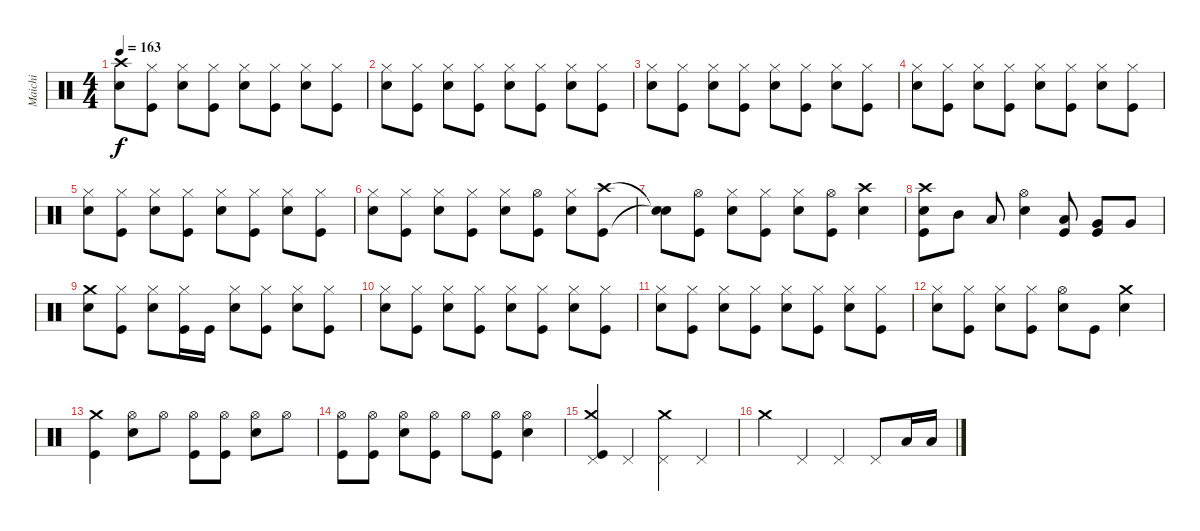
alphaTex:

\track ("Maichi" "Maichi") {instrument percussion}
\staff {score}
\articulation defaults
\ts (4 4)
\tempo 163
\clef neutral
\ks c
("Crash high (hit)" "Electric Snare (hit)").8{dy f} ("Hi-Hat (closed)" "Kick (hit)").8 ("Hi-Hat (closed)" "Electric Snare (hit)").8 ("Hi-Hat (closed)" "Kick (hit)").8 ("Electric Snare (hit)" "Hi-Hat (closed)").8 ("Kick (hit)" "Hi-Hat (closed)").8 ("Electric Snare (hit)" "Hi-Hat (closed)").8 ("Kick (hit)" "Hi-Hat (closed)").8 |
("Hi-Hat (closed)" "Electric Snare (hit)").8 ("Hi-Hat (closed)" "Kick (hit)").8 ("Hi-Hat (closed)" "Electric Snare (hit)").8 ("Hi-Hat (closed)" "Kick (hit)").8 ("Hi-Hat (closed)" "Electric Snare (hit)").8 ("Hi-Hat (closed)" "Kick (hit)").8 ("Electric Snare (hit)" "Hi-Hat (closed)").8 ("Kick (hit)" "Hi-Hat (closed)").8 |
("Hi-Hat (closed)" "Electric Snare (hit)").8 ("Hi-Hat (closed)" "Kick (hit)").8 ("Electric Snare (hit)" "Hi-Hat (closed)").8 ("Kick (hit)" "Hi-Hat (closed)").8 ("Hi-Hat (closed)" "Electric Snare (hit)").8 ("Hi-Hat (closed)" "Kick (hit)").8 ("Electric Snare (hit)" "Hi-Hat (closed)").8 ("Kick (hit)" "Hi-Hat (closed)").8 |
("Hi-Hat (closed)" "Electric Snare (hit)").8 ("Hi-Hat (closed)" "Kick (hit)").8 ("Hi-Hat (closed)" "Electric Snare (hit)").8 ("Kick (hit)" "Hi-Hat (closed)").8 ("Electric Snare (hit)" "Hi-Hat (closed)").8 ("Kick (hit)" "Hi-Hat (closed)").8 ("Electric Snare (hit)" "Hi-Hat (closed)").8 ("Kick (hit)" "Hi-Hat (closed)").8 |
("Hi-Hat (closed)" "Electric Snare (hit)").8 ("Hi-Hat (closed)" "Kick (hit)").8 ("Hi-Hat (closed)" "Electric Snare (hit)").8 ("Kick (hit)" "Hi-Hat (closed)").8 ("Electric Snare (hit)" "Hi-Hat (closed)").8 ("Hi-Hat (closed)" "Kick (hit)").8 ("Hi-Hat (closed)" "Electric Snare (hit)").8 ("Kick (hit)" "Hi-Hat (closed)").8 |
("Hi-Hat (closed)" "Electric Snare (hit)").8 ("Kick (hit)" "Hi-Hat (closed)").8 ("Electric Snare (hit)" "Hi-Hat (closed)").8 ("Hi-Hat (closed)" "Kick (hit)").8 ("Hi-Hat (closed)" "Electric Snare (hit)").8 ("Kick (hit)" "Hi-Hat (open)").8 ("Hi-Hat (closed)" "Electric Snare (hit)").8 ("Crash high (hit)" "Kick (hit)").8 |
("Snare (hit)"{t} "Snare (hit)"{t}).8 ("Hi-Hat (open)" "Kick (hit)").8 ("Hi-Hat (closed)" "Electric Snare (hit)").8 ("Hi-Hat (closed)" "Kick (hit)").8 ("Electric Snare (hit)" "Hi-Hat (closed)").8 ("Hi-Hat (open)" "Kick (hit)").8 ("Electric Snare (hit)" "Crash high (hit)").4 |
("Kick (hit)" "Crash high (hit)" "Electric Snare (hit)").8 "Mid Tom (hit)".8 "Low Tom (hit)".8 ("Hi-Hat (open)" "Electric Snare (hit)").4 ("Low Tom (hit)" "Kick (hit)").8 ("Very Low Tom (hit)" "Kick (hit)").8 "Very Low Tom (hit)".8 |
("Crash medium (hit)" "Electric Snare (hit)").8 ("Kick (hit)" "Hi-Hat (closed)").8 ("Hi-Hat (closed)" "Electric Snare (hit)").8 ("Hi-Hat (closed)" "Kick (hit)").16 "Kick (hit)".16 ("Hi-Hat (closed)" "Electric Snare (hit)").8 ("Kick (hit)" "Hi-Hat (closed)").8 ("Electric Snare (hit)" "Hi-Hat (closed)").8 ("Kick (hit)" "Hi-Hat (closed)").8 |
("Hi-Hat (closed)" "Electric Snare (hit)").8 ("Hi-Hat (closed)" "Kick (hit)").8 ("Hi-Hat (closed)" "Electric Snare (hit)").8 ("Kick (hit)" "Hi-Hat (closed)").8 ("Hi-Hat (closed)" "Electric Snare (hit)").8 ("Kick (hit)" "Hi-Hat (closed)").8 ("Hi-Hat (closed)" "Electric Snare (hit)").8 ("Hi-Hat (closed)" "Kick (hit)").8 |
("Hi-Hat (closed)" "Electric Snare (hit)").8 ("Hi-Hat (closed)" "Kick (hit)").8 ("Electric Snare (hit)" "Hi-Hat (closed)").8 ("Kick (hit)" "Hi-Hat (closed)").8 ("Electric Snare (hit)" "Hi-Hat (closed)").8 ("Hi-Hat (closed)" "Kick (hit)").8 ("Hi-Hat (closed)" "Electric Snare (hit)").8 ("Kick (hit)" "Hi-Hat (closed)").8 |
("Hi-Hat (closed)" "Electric Snare (hit)").8 ("Kick (hit)" "Hi-Hat (closed)").8 ("Electric Snare (hit)" "Hi-Hat (closed)").8 ("Hi-Hat (closed)" "Kick (hit)").8 ("Electric Snare (hit)" "Hi-Hat (open)").8 "Kick (hit)".8 ("Crash medium (hit)" "Electric Snare (hit)").4 |
("Kick (hit)" "Crash medium (hit)").4 ("Hi-Hat (open)" "Electric Snare (hit)").8 "Hi-Hat (open)".8 ("Kick (hit)" "Hi-Hat (open)").8 ("Hi-Hat (open)" "Kick (hit)").8 ("Hi-Hat (open)" "Electric Snare (hit)").8 "Hi-Hat (open)".8 |
("Hi-Hat (open)" "Kick (hit)").8 ("Hi-Hat (open)" "Kick (hit)").8 ("Electric Snare (hit)" "Hi-Hat (open)").8 ("Hi-Hat (open)" "Kick (hit)").8 "Hi-Hat (open)".8 ("Hi-Hat (open)" "Kick (hit)").8 ("Electric Snare (hit)" "Hi-Hat (open)").4 |
("Kick (hit)" "Pedal Hi-Hat (hit)" "Crash medium (hit)").4 "Pedal Hi-Hat (hit)".4 ("Crash medium (hit)" "Pedal Hi-Hat (hit)").4 "Pedal Hi-Hat (hit)".4 |
"Crash medium (hit)".4 "Pedal Hi-Hat (hit)".4 "Pedal Hi-Hat (hit)".4 "Pedal Hi-Hat (hit)".8 "Low Tom (hit)".16 "Low Tom (hit)".16
